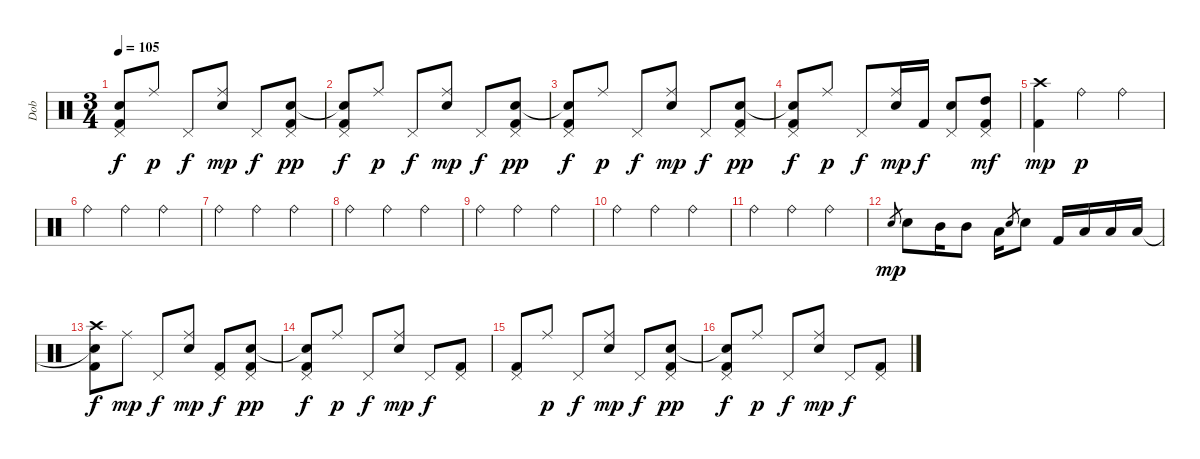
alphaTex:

\track ("Dob" "Dob") {instrument percussion}
\staff {score}
\articulation defaults
\ts (3 4)
\tempo 105
\clef neutral
\ks c
("Snare (hit)"{t} "Kick (hit) 2" "Pedal Hi-Hat (hit)").8{dy f} "Ride (middle)".8{dy p} "Pedal Hi-Hat (hit)".8{dy f} ("Electric Snare (hit)" "Ride (middle)").8{dy mp} "Pedal Hi-Hat (hit)".8{dy f} ("Electric Snare (hit)"{tr (40 32)} "Kick (hit) 2" "Pedal Hi-Hat (hit)").8{dy pp} |
("Snare (hit)"{t} "Kick (hit) 2" "Pedal Hi-Hat (hit)").8{dy f} "Ride (middle)".8{dy p} "Pedal Hi-Hat (hit)".8{dy f} ("Electric Snare (hit)" "Ride (middle)").8{dy mp} "Pedal Hi-Hat (hit)".8{dy f} ("Electric Snare (hit)"{tr (40 32)} "Kick (hit) 2" "Pedal Hi-Hat (hit)").8{dy pp} |
("Snare (hit)"{t} "Kick (hit) 2" "Pedal Hi-Hat (hit)").8{dy f} "Ride (middle)".8{dy p} "Pedal Hi-Hat (hit)".8{dy f} ("Electric Snare (hit)" "Ride (middle)").8{dy mp} "Pedal Hi-Hat (hit)".8{dy f} ("Electric Snare (hit)"{tr (40 32)} "Kick (hit) 2" "Pedal Hi-Hat (hit)").8{dy pp} |
("Snare (hit)"{t} "Kick (hit) 2" "Pedal Hi-Hat (hit)").8{dy f} "Ride (middle)".8{dy p} "Pedal Hi-Hat (hit)".8{dy f} ("Electric Snare (hit)" "Ride (middle)").16{dy mp} "Kick (hit) 2".16{dy f} ("Electric Snare (hit)" "Pedal Hi-Hat (hit)").8 ("High Tom (hit)"{tr (48 16)} "Kick (hit) 2" "Pedal Hi-Hat (hit)").8{dy mf} |
("Kick (hit) 2" "Crash high (hit)").4{dy mp} "Ride (bell)".4{dy p} "Ride (bell)".4 |
"Ride (bell)".4 "Ride (bell)".4 "Ride (bell)".4 |
"Ride (bell)".4 "Ride (bell)".4 "Ride (bell)".4 |
"Ride (bell)".4 "Ride (bell)".4 "Ride (bell)".4 |
"Ride (bell)".4 "Ride (bell)".4 "Ride (bell)".4 |
"Ride (bell)".4 "Ride (bell)".4 "Ride (bell)".4 |
"Ride (bell)".4 "Ride (bell)".4 "Ride (bell)".4 |
"Electric Snare (hit)".8{gr dy mp} "Electric Snare (hit)".8 "Mid Tom (hit)".16 "Mid Tom (hit)".8 "Low Tom (hit)".16 "Electric Snare (hit)".8{gr} "Electric Snare (hit)".8 "Kick (hit) 2".16 "Low Tom (hit)".16 "Low Tom (hit)".16 "Low Tom (hit)".16 |
("Snare (hit)"{t} "Kick (hit) 2" "Crash high (hit)").8{dy f} "Ride (middle)".8{dy mp} "Pedal Hi-Hat (hit)".8{dy f} ("Electric Snare (hit)" "Ride (middle)").8{dy mp} ("Kick (hit) 2" "Pedal Hi-Hat (hit)").8{dy f} ("Electric Snare (hit)"{tr (40 32)} "Kick (hit) 2" "Pedal Hi-Hat (hit)").8{dy pp} |
("Snare (hit)"{t} "Kick (hit) 2" "Pedal Hi-Hat (hit)").8{dy f} "Ride (middle)".8{dy p} "Pedal Hi-Hat (hit)".8{dy f} ("Electric Snare (hit)" "Ride (middle)").8{dy mp} "Pedal Hi-Hat (hit)".8{dy f} ("Kick (hit) 2" "Pedal Hi-Hat (hit)").8 |
("Kick (hit) 2" "Pedal Hi-Hat (hit)").8 "Ride (middle)".8{dy p} "Pedal Hi-Hat (hit)".8{dy f} ("Electric Snare (hit)" "Ride (middle)").8{dy mp} "Pedal Hi-Hat (hit)".8{dy f} ("Electric Snare (hit)"{tr (40 32)} "Kick (hit) 2" "Pedal Hi-Hat (hit)").8{dy pp} |
("Snare (hit)"{t} "Kick (hit) 2" "Pedal Hi-Hat (hit)").8{dy f} "Ride (middle)".8{dy p} "Pedal Hi-Hat (hit)".8{dy f} ("Electric Snare (hit)" "Ride (middle)").8{dy mp} "Pedal Hi-Hat (hit)".8{dy f} ("Kick (hit) 2" "Pedal Hi-Hat (hit)").8
